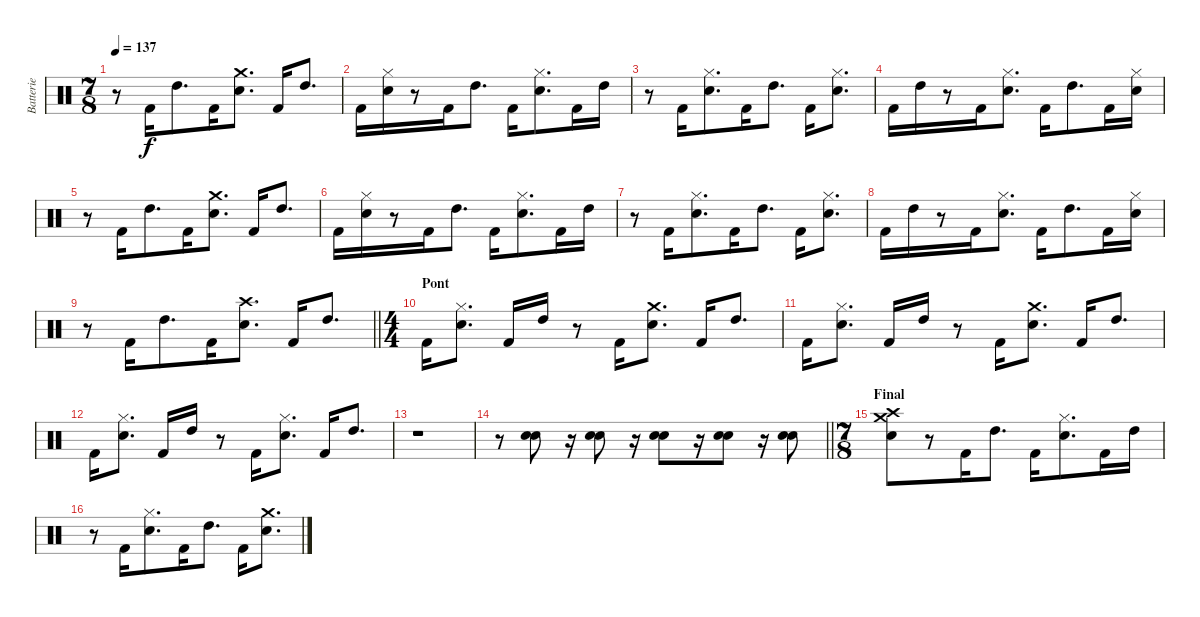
\track ("Batterie" "Batterie") {instrument percussion}
\staff {score}
\articulation defaults
\ts (7 8)
\tempo 137
\clef neutral
\ks c
r.8{dy f} "Kick (hit) 2".16 "High Tom (hit)".8{d} "Kick (hit) 2".16 ("Snare (hit) 2" "Crash medium (hit)").8{d} "Kick (hit) 2".16 "High Tom (hit)".8{d} |
"Kick (hit) 2".16 ("Snare (hit) 2" "Hi-Hat (closed)").16 r.8 "Kick (hit) 2".16 "High Tom (hit)".8{d} "Kick (hit) 2".16 ("Snare (hit) 2" "Hi-Hat (closed)").8{d} "Kick (hit) 2".16 "High Tom (hit)".16 |
r.8 "Kick (hit) 2".16 ("Snare (hit) 2" "Hi-Hat (closed)").8{d} "Kick (hit) 2".16 "High Tom (hit)".8{d} "Kick (hit) 2".16 ("Snare (hit) 2" "Hi-Hat (closed)").8{d} |
"Kick (hit) 2".16 "High Tom (hit)".16 r.8 "Kick (hit) 2".16 ("Snare (hit) 2" "Hi-Hat (closed)").8{d} "Kick (hit) 2".16 "High Tom (hit)".8{d} "Kick (hit) 2".16 ("Snare (hit) 2" "Hi-Hat (closed)").16 |
r.8 "Kick (hit) 2".16 "High Tom (hit)".8{d} "Kick (hit) 2".16 ("Snare (hit) 2" "Crash medium (hit)").8{d} "Kick (hit) 2".16 "High Tom (hit)".8{d} |
"Kick (hit) 2".16 ("Snare (hit) 2" "Hi-Hat (closed)").16 r.8 "Kick (hit) 2".16 "High Tom (hit)".8{d} "Kick (hit) 2".16 ("Snare (hit) 2" "Hi-Hat (closed)").8{d} "Kick (hit) 2".16 "High Tom (hit)".16 |
r.8 "Kick (hit) 2".16 ("Snare (hit) 2" "Hi-Hat (closed)").8{d} "Kick (hit) 2".16 "High Tom (hit)".8{d} "Kick (hit) 2".16 ("Snare (hit) 2" "Hi-Hat (closed)").8{d} |
"Kick (hit) 2".16 "High Tom (hit)".16 r.8 "Kick (hit) 2".16 ("Snare (hit) 2" "Hi-Hat (closed)").8{d} "Kick (hit) 2".16 "High Tom (hit)".8{d} "Kick (hit) 2".16 ("Snare (hit) 2" "Hi-Hat (closed)").16 |
\barLineRight lightlight
r.8 "Kick (hit) 2".16 "High Tom (hit)".8{d} "Kick (hit) 2".16 ("Snare (hit) 2" "Crash high (hit)").8{d} "Kick (hit) 2".16 "High Tom (hit)".8{d} |
\ts (4 4)
\section ("" "Pont")
"Kick (hit) 2".16 ("Snare (hit) 2" "Hi-Hat (closed)").8{d} "Kick (hit) 2".16 "High Tom (hit)".16 r.8 "Kick (hit) 2".16 ("Snare (hit) 2" "Crash medium (hit)").8{d} "Kick (hit) 2".16 "High Tom (hit)".8{d} |
"Kick (hit) 2".16 ("Snare (hit) 2" "Hi-Hat (closed)").8{d} "Kick (hit) 2".16 "High Tom (hit)".16 r.8 "Kick (hit) 2".16 ("Snare (hit) 2" "Crash medium (hit)").8{d} "Kick (hit) 2".16 "High Tom (hit)".8{d} |
"Kick (hit) 2".16 ("Snare (hit) 2" "Hi-Hat (closed)").8{d} "Kick (hit) 2".16 "High Tom (hit)".16 r.8 "Kick (hit) 2".16 ("Snare (hit) 2" "Hi-Hat (closed)").8{d} "Kick (hit) 2".16 "High Tom (hit)".8{d} |
r.1 |
\barLineRight lightlight
r.8 ("Snare (hit) 2" "Snare (hit) 2").8 r.16 ("Snare (hit) 2" "Snare (hit) 2").8 r.16 ("Snare (hit) 2" "Snare (hit) 2").8 r.16 ("Snare (hit) 2" "Snare (hit) 2").8 r.16 ("Snare (hit) 2" "Snare (hit) 2").8 |
\ts (7 8)
\section ("" "Final")
("Snare (hit) 2" "Crash high (hit)" "Crash medium (hit)").8 r.8 "Kick (hit) 2".16 "High Tom (hit)".8{d} "Kick (hit) 2".16 ("Snare (hit) 2" "Hi-Hat (closed)").8{d} "Kick (hit) 2".16 "High Tom (hit)".16 |
r.8 "Kick (hit) 2".16 ("Snare (hit) 2" "Hi-Hat (closed)").8{d} "Kick (hit) 2".16 "High Tom (hit)".8{d} "Kick (hit) 2".16 ("Snare (hit) 2" "Crash medium (hit)").8{d}
